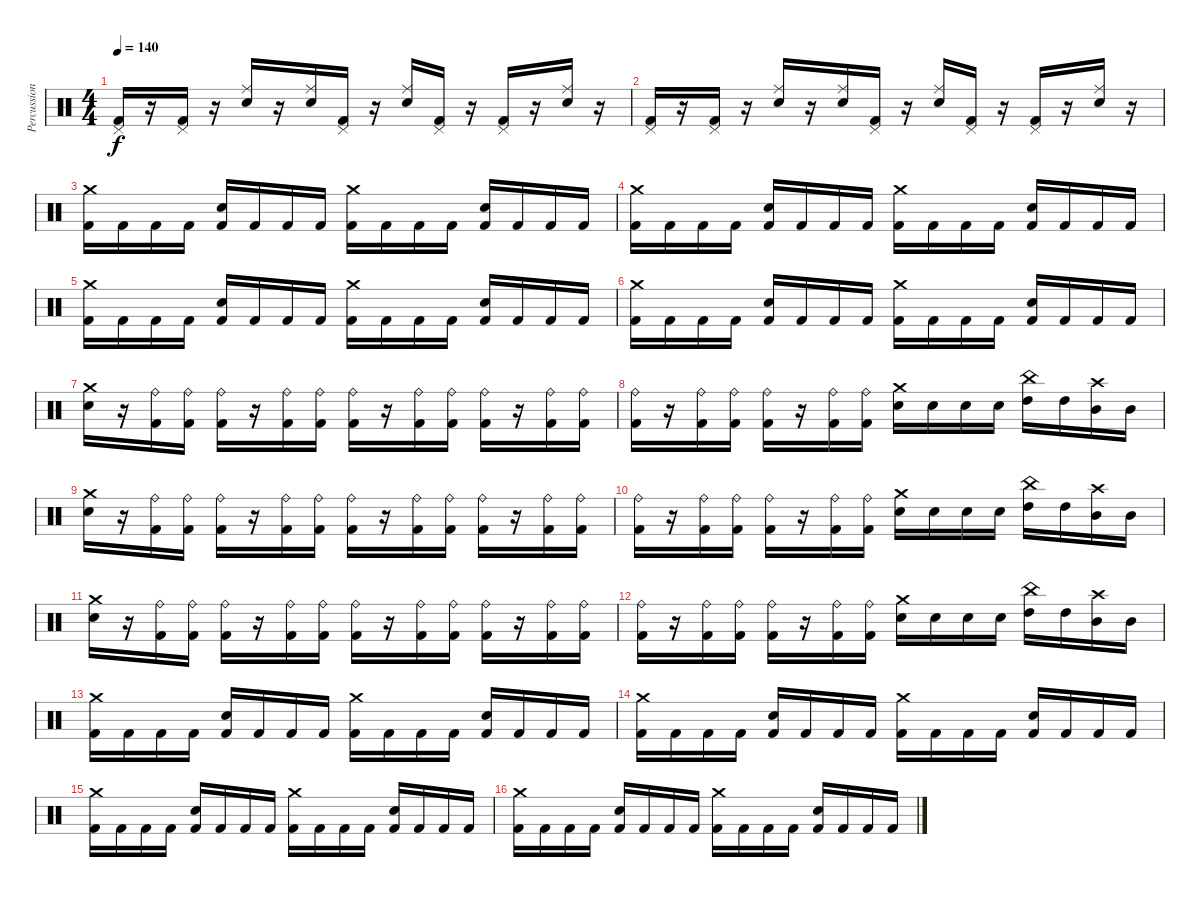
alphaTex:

\track ("Percussions" "Percussion") {instrument percussion}
\staff {score}
\articulation defaults
\ts (4 4)
\tempo 140
\clef neutral
\ks c
("Pedal Hi-Hat (hit)" "Kick (hit) 2").16{dy f} r.16 ("Pedal Hi-Hat (hit)" "Kick (hit) 2").16 r.16 ("Ride (middle)" "Snare (hit) 2").16 r.16 ("Ride (middle)" "Snare (hit) 2").16 ("Pedal Hi-Hat (hit)" "Kick (hit) 2").16 r.16 ("Ride (middle)" "Snare (hit) 2").16 ("Pedal Hi-Hat (hit)" "Kick (hit) 2").16 r.16 ("Pedal Hi-Hat (hit)" "Kick (hit) 2").16 r.16 ("Ride (middle)" "Snare (hit) 2").16 r.16 |
("Pedal Hi-Hat (hit)" "Kick (hit) 2").16 r.16 ("Pedal Hi-Hat (hit)" "Kick (hit) 2").16 r.16 ("Ride (middle)" "Snare (hit) 2").16 r.16 ("Ride (middle)" "Snare (hit) 2").16 ("Pedal Hi-Hat (hit)" "Kick (hit) 2").16 r.16 ("Ride (middle)" "Snare (hit) 2").16 ("Pedal Hi-Hat (hit)" "Kick (hit) 2").16 r.16 ("Pedal Hi-Hat (hit)" "Kick (hit) 2").16 r.16 ("Ride (middle)" "Snare (hit) 2").16 r.16 |
("Crash medium (hit)" "Kick (hit) 2").16 "Kick (hit) 2".16 "Kick (hit) 2".16 "Kick (hit) 2".16 ("Electric Snare (hit)" "Kick (hit) 2").16 "Kick (hit) 2".16 "Kick (hit) 2".16 "Kick (hit) 2".16 ("Crash medium (hit)" "Kick (hit) 2").16 "Kick (hit) 2".16 "Kick (hit) 2".16 "Kick (hit) 2".16 ("Electric Snare (hit)" "Kick (hit) 2").16 "Kick (hit) 2".16 "Kick (hit) 2".16 "Kick (hit) 2".16 |
("Crash medium (hit)" "Kick (hit) 2").16 "Kick (hit) 2".16 "Kick (hit) 2".16 "Kick (hit) 2".16 ("Electric Snare (hit)" "Kick (hit) 2").16 "Kick (hit) 2".16 "Kick (hit) 2".16 "Kick (hit) 2".16 ("Crash medium (hit)" "Kick (hit) 2").16 "Kick (hit) 2".16 "Kick (hit) 2".16 "Kick (hit) 2".16 ("Electric Snare (hit)" "Kick (hit) 2").16 "Kick (hit) 2".16 "Kick (hit) 2".16 "Kick (hit) 2".16 |
("Crash medium (hit)" "Kick (hit) 2").16 "Kick (hit) 2".16 "Kick (hit) 2".16 "Kick (hit) 2".16 ("Electric Snare (hit)" "Kick (hit) 2").16 "Kick (hit) 2".16 "Kick (hit) 2".16 "Kick (hit) 2".16 ("Crash medium (hit)" "Kick (hit) 2").16 "Kick (hit) 2".16 "Kick (hit) 2".16 "Kick (hit) 2".16 ("Electric Snare (hit)" "Kick (hit) 2").16 "Kick (hit) 2".16 "Kick (hit) 2".16 "Kick (hit) 2".16 |
("Crash medium (hit)" "Kick (hit) 2").16 "Kick (hit) 2".16 "Kick (hit) 2".16 "Kick (hit) 2".16 ("Electric Snare (hit)" "Kick (hit) 2").16 "Kick (hit) 2".16 "Kick (hit) 2".16 "Kick (hit) 2".16 ("Crash medium (hit)" "Kick (hit) 2").16 "Kick (hit) 2".16 "Kick (hit) 2".16 "Kick (hit) 2".16 ("Electric Snare (hit)" "Kick (hit) 2").16 "Kick (hit) 2".16 "Kick (hit) 2".16 "Kick (hit) 2".16 |
("Crash medium (hit)" "Snare (hit) 2").16 r.16 ("Ride (bell)" "Kick (hit) 2").16 ("Ride (bell)" "Kick (hit) 2").16 ("Ride (bell)" "Kick (hit) 2").16 r.16 ("Ride (bell)" "Kick (hit) 2").16 ("Ride (bell)" "Kick (hit) 2").16 ("Ride (bell)" "Kick (hit) 2").16 r.16 ("Ride (bell)" "Kick (hit) 2").16 ("Ride (bell)" "Kick (hit) 2").16 ("Ride (bell)" "Kick (hit) 2").16 r.16 ("Ride (bell)" "Kick (hit) 2").16 ("Ride (bell)" "Kick (hit) 2").16 |
("Ride (bell)" "Kick (hit) 2").16 r.16 ("Ride (bell)" "Kick (hit) 2").16 ("Ride (bell)" "Kick (hit) 2").16 ("Ride (bell)" "Kick (hit) 2").16 r.16 ("Ride (bell)" "Kick (hit) 2").16 ("Ride (bell)" "Kick (hit) 2").16 ("Crash medium (hit)" "Snare (hit) 2").16 "Snare (hit) 2".16 "Snare (hit) 2".16 "Snare (hit) 2".16 ("China (hit)" "High Tom (hit)").16 "High Tom (hit)".16 ("Crash high (hit)" "Mid Tom (hit)").16 "Mid Tom (hit)".16 |
("Crash medium (hit)" "Snare (hit) 2").16 r.16 ("Ride (bell)" "Kick (hit) 2").16 ("Ride (bell)" "Kick (hit) 2").16 ("Ride (bell)" "Kick (hit) 2").16 r.16 ("Ride (bell)" "Kick (hit) 2").16 ("Ride (bell)" "Kick (hit) 2").16 ("Ride (bell)" "Kick (hit) 2").16 r.16 ("Ride (bell)" "Kick (hit) 2").16 ("Ride (bell)" "Kick (hit) 2").16 ("Ride (bell)" "Kick (hit) 2").16 r.16 ("Ride (bell)" "Kick (hit) 2").16 ("Ride (bell)" "Kick (hit) 2").16 |
("Ride (bell)" "Kick (hit) 2").16 r.16 ("Ride (bell)" "Kick (hit) 2").16 ("Ride (bell)" "Kick (hit) 2").16 ("Ride (bell)" "Kick (hit) 2").16 r.16 ("Ride (bell)" "Kick (hit) 2").16 ("Ride (bell)" "Kick (hit) 2").16 ("Crash medium (hit)" "Snare (hit) 2").16 "Snare (hit) 2".16 "Snare (hit) 2".16 "Snare (hit) 2".16 ("China (hit)" "High Tom (hit)").16 "High Tom (hit)".16 ("Crash high (hit)" "Mid Tom (hit)").16 "Mid Tom (hit)".16 |
("Crash medium (hit)" "Snare (hit) 2").16 r.16 ("Ride (bell)" "Kick (hit) 2").16 ("Ride (bell)" "Kick (hit) 2").16 ("Ride (bell)" "Kick (hit) 2").16 r.16 ("Ride (bell)" "Kick (hit) 2").16 ("Ride (bell)" "Kick (hit) 2").16 ("Ride (bell)" "Kick (hit) 2").16 r.16 ("Ride (bell)" "Kick (hit) 2").16 ("Ride (bell)" "Kick (hit) 2").16 ("Ride (bell)" "Kick (hit) 2").16 r.16 ("Ride (bell)" "Kick (hit) 2").16 ("Ride (bell)" "Kick (hit) 2").16 |
("Ride (bell)" "Kick (hit) 2").16 r.16 ("Ride (bell)" "Kick (hit) 2").16 ("Ride (bell)" "Kick (hit) 2").16 ("Ride (bell)" "Kick (hit) 2").16 r.16 ("Ride (bell)" "Kick (hit) 2").16 ("Ride (bell)" "Kick (hit) 2").16 ("Crash medium (hit)" "Snare (hit) 2").16 "Snare (hit) 2".16 "Snare (hit) 2".16 "Snare (hit) 2".16 ("China (hit)" "High Tom (hit)").16 "High Tom (hit)".16 ("Crash high (hit)" "Mid Tom (hit)").16 "Mid Tom (hit)".16 |
("Crash medium (hit)" "Kick (hit) 2").16 "Kick (hit) 2".16 "Kick (hit) 2".16 "Kick (hit) 2".16 ("Electric Snare (hit)" "Kick (hit) 2").16 "Kick (hit) 2".16 "Kick (hit) 2".16 "Kick (hit) 2".16 ("Crash medium (hit)" "Kick (hit) 2").16 "Kick (hit) 2".16 "Kick (hit) 2".16 "Kick (hit) 2".16 ("Electric Snare (hit)" "Kick (hit) 2").16 "Kick (hit) 2".16 "Kick (hit) 2".16 "Kick (hit) 2".16 |
("Crash medium (hit)" "Kick (hit) 2").16 "Kick (hit) 2".16 "Kick (hit) 2".16 "Kick (hit) 2".16 ("Electric Snare (hit)" "Kick (hit) 2").16 "Kick (hit) 2".16 "Kick (hit) 2".16 "Kick (hit) 2".16 ("Crash medium (hit)" "Kick (hit) 2").16 "Kick (hit) 2".16 "Kick (hit) 2".16 "Kick (hit) 2".16 ("Electric Snare (hit)" "Kick (hit) 2").16 "Kick (hit) 2".16 "Kick (hit) 2".16 "Kick (hit) 2".16 |
("Crash medium (hit)" "Kick (hit) 2").16 "Kick (hit) 2".16 "Kick (hit) 2".16 "Kick (hit) 2".16 ("Electric Snare (hit)" "Kick (hit) 2").16 "Kick (hit) 2".16 "Kick (hit) 2".16 "Kick (hit) 2".16 ("Crash medium (hit)" "Kick (hit) 2").16 "Kick (hit) 2".16 "Kick (hit) 2".16 "Kick (hit) 2".16 ("Electric Snare (hit)" "Kick (hit) 2").16 "Kick (hit) 2".16 "Kick (hit) 2".16 "Kick (hit) 2".16 |
("Crash medium (hit)" "Kick (hit) 2").16 "Kick (hit) 2".16 "Kick (hit) 2".16 "Kick (hit) 2".16 ("Electric Snare (hit)" "Kick (hit) 2").16 "Kick (hit) 2".16 "Kick (hit) 2".16 "Kick (hit) 2".16 ("Crash medium (hit)" "Kick (hit) 2").16 "Kick (hit) 2".16 "Kick (hit) 2".16 "Kick (hit) 2".16 ("Electric Snare (hit)" "Kick (hit) 2").16 "Kick (hit) 2".16 "Kick (hit) 2".16 "Kick (hit) 2".16
